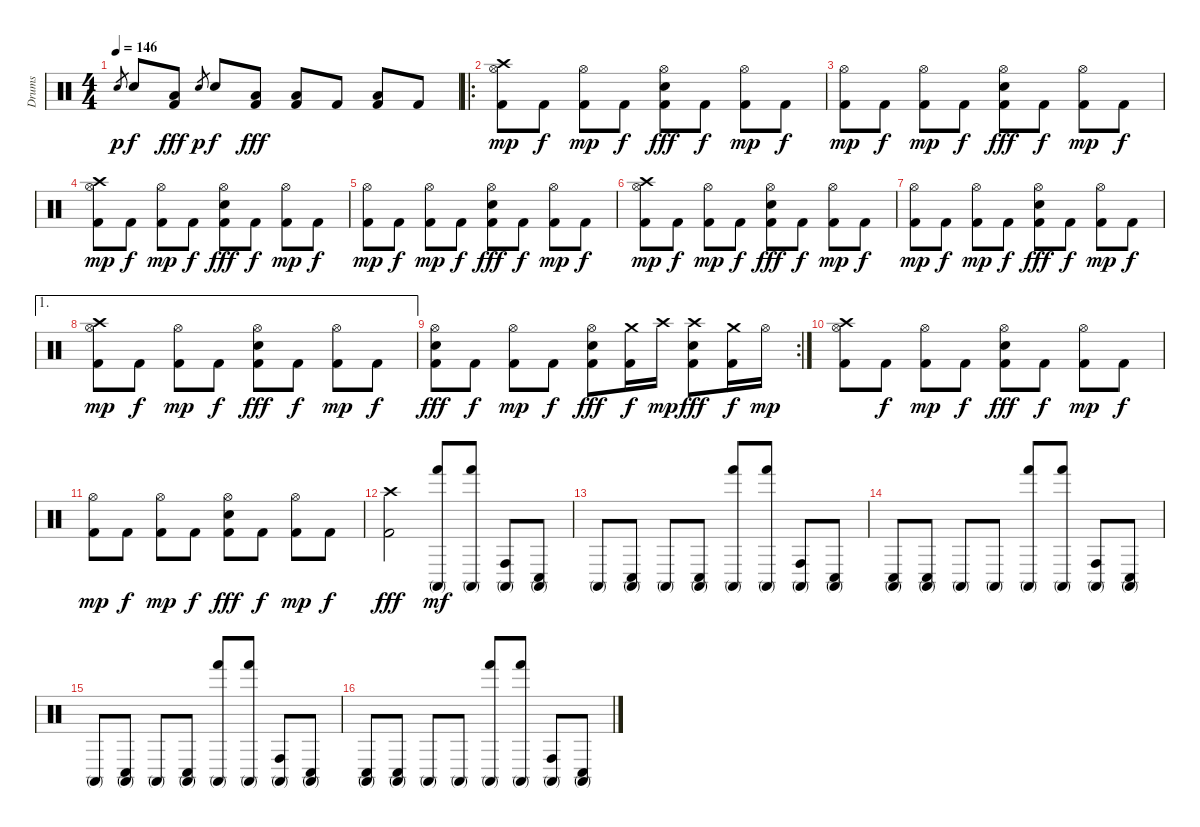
\track ("Drums" "Drums") {instrument percussion}
\staff {score}
\articulation defaults
\ts (4 4)
\tempo 146
\clef neutral
\ks c "Snare (hit) 2".8{gr dy p} "Snare (hit) 2".8{dy f}
("Low Floor Tom (hit)" "Kick (hit) 2").8{dy fff} "Snare (hit) 2".8{gr dy p} "Snare (hit) 2".8{dy f} ("Low Floor Tom (hit)" "Kick (hit) 2").8{dy fff} ("Low Floor Tom (hit)" "Kick (hit) 2").8 "Kick (hit) 2".8 ("Low Floor Tom (hit)" "Kick (hit) 2").8 "Kick (hit) 2".8 |
\ro
("Crash high (hit)" "Hi-Hat (open)" "Kick (hit) 2").8{dy mp} "Kick (hit) 2".8{dy f} ("Hi-Hat (open)" "Kick (hit) 2").8{dy mp} "Kick (hit) 2".8{dy f} ("Hi-Hat (open)" "Snare (hit) 2" "Kick (hit) 2").8{dy fff} "Kick (hit) 2".8{dy f} ("Hi-Hat (open)" "Kick (hit) 2").8{dy mp} "Kick (hit) 2".8{dy f} |
("Hi-Hat (open)" "Kick (hit) 2").8{dy mp} "Kick (hit) 2".8{dy f} ("Hi-Hat (open)" "Kick (hit) 2").8{dy mp} "Kick (hit) 2".8{dy f} ("Hi-Hat (open)" "Snare (hit) 2" "Kick (hit) 2").8{dy fff} "Kick (hit) 2".8{dy f} ("Hi-Hat (open)" "Kick (hit) 2").8{dy mp} "Kick (hit) 2".8{dy f} |
("Crash high (hit)" "Hi-Hat (open)" "Kick (hit) 2").8{dy mp} "Kick (hit) 2".8{dy f} ("Hi-Hat (open)" "Kick (hit) 2").8{dy mp} "Kick (hit) 2".8{dy f} ("Hi-Hat (open)" "Snare (hit) 2" "Kick (hit) 2").8{dy fff} "Kick (hit) 2".8{dy f} ("Hi-Hat (open)" "Kick (hit) 2").8{dy mp} "Kick (hit) 2".8{dy f} |
("Hi-Hat (open)" "Kick (hit) 2").8{dy mp} "Kick (hit) 2".8{dy f} ("Hi-Hat (open)" "Kick (hit) 2").8{dy mp} "Kick (hit) 2".8{dy f} ("Hi-Hat (open)" "Snare (hit) 2" "Kick (hit) 2").8{dy fff} "Kick (hit) 2".8{dy f} ("Hi-Hat (open)" "Kick (hit) 2").8{dy mp} "Kick (hit) 2".8{dy f} |
("Crash high (hit)" "Hi-Hat (open)" "Kick (hit) 2").8{dy mp} "Kick (hit) 2".8{dy f} ("Hi-Hat (open)" "Kick (hit) 2").8{dy mp} "Kick (hit) 2".8{dy f} ("Hi-Hat (open)" "Snare (hit) 2" "Kick (hit) 2").8{dy fff} "Kick (hit) 2".8{dy f} ("Hi-Hat (open)" "Kick (hit) 2").8{dy mp} "Kick (hit) 2".8{dy f} |
("Hi-Hat (open)" "Kick (hit) 2").8{dy mp} "Kick (hit) 2".8{dy f} ("Hi-Hat (open)" "Kick (hit) 2").8{dy mp} "Kick (hit) 2".8{dy f} ("Hi-Hat (open)" "Snare (hit) 2" "Kick (hit) 2").8{dy fff} "Kick (hit) 2".8{dy f} ("Hi-Hat (open)" "Kick (hit) 2").8{dy mp} "Kick (hit) 2".8{dy f} |
\ae 1
("Crash high (hit)" "Hi-Hat (open)" "Kick (hit) 2").8{dy mp} "Kick (hit) 2".8{dy f} ("Hi-Hat (open)" "Kick (hit) 2").8{dy mp} "Kick (hit) 2".8{dy f} ("Hi-Hat (open)" "Snare (hit) 2" "Kick (hit) 2").8{dy fff} "Kick (hit) 2".8{dy f} ("Hi-Hat (open)" "Kick (hit) 2").8{dy mp} "Kick (hit) 2".8{dy f} |
\rc 2
("Hi-Hat (open)" "Snare (hit) 2" "Kick (hit) 2").8{dy fff} "Kick (hit) 2".8{dy f} ("Hi-Hat (open)" "Kick (hit) 2").8{dy mp} "Kick (hit) 2".8{dy f} ("Hi-Hat (open)" "Snare (hit) 2" "Kick (hit) 2").8{dy fff} ("Crash medium (hit)" "Kick (hit) 2").16{dy f} "Crash high (hit)".16{dy mp} ("Crash high (hit)" "Snare (hit) 2" "Kick (hit) 2").8{dy fff} ("Crash medium (hit)" "Kick (hit) 2").16{dy f} "Hi-Hat (open)".16{dy mp} |
("Crash high (hit)" "Hi-Hat (open)" "Kick (hit) 2").8 "Kick (hit) 2".8{dy f} ("Hi-Hat (open)" "Kick (hit) 2").8{dy mp} "Kick (hit) 2".8{dy f} ("Hi-Hat (open)" "Snare (hit) 2" "Kick (hit) 2").8{dy fff} "Kick (hit) 2".8{dy f} ("Hi-Hat (open)" "Kick (hit) 2").8{dy mp} "Kick (hit) 2".8{dy f} |
("Hi-Hat (open)" "Kick (hit) 2").8{dy mp} "Kick (hit) 2".8{dy f} ("Hi-Hat (open)" "Kick (hit) 2").8{dy mp} "Kick (hit) 2".8{dy f} ("Hi-Hat (open)" "Snare (hit) 2" "Kick (hit) 2").8{dy fff} "Kick (hit) 2".8{dy f} ("Hi-Hat (open)" "Kick (hit) 2").8{dy mp} "Kick (hit) 2".8{dy f} |
("Crash high (hit)" "Kick (hit) 2").2{dy fff} ("Hand (hit)" "Conga high (mute)").8{dy mf} ("Hand (hit)" "Conga high (mute)").8 ("Conga high (hit)" "Conga high (mute)").8 ("Conga low (hit)" "Conga high (mute)").8 |
"Conga high (mute)".8{volume 4} ("Conga low (hit)" "Conga high (mute)").8 "Conga high (mute)".8 ("Conga low (hit)" "Conga high (mute)").8 ("Hand (hit)" "Conga high (mute)").8 ("Hand (hit)" "Conga high (mute)").8 ("Conga high (hit)" "Conga high (mute)").8 ("Conga low (hit)" "Conga high (mute)").8 |
("Conga low (hit)" "Conga high (mute)").8 ("Conga low (hit)" "Conga high (mute)").8 "Conga high (mute)".8 "Conga high (mute)".8 ("Hand (hit)" "Conga high (mute)").8 ("Hand (hit)" "Conga high (mute)").8 ("Conga high (hit)" "Conga high (mute)").8 ("Conga low (hit)" "Conga high (mute)").8 |
"Conga high (mute)".8 ("Conga low (hit)" "Conga high (mute)").8 "Conga high (mute)".8 ("Conga low (hit)" "Conga high (mute)").8 ("Hand (hit)" "Conga high (mute)").8 ("Hand (hit)" "Conga high (mute)").8 ("Conga high (hit)" "Conga high (mute)").8 ("Conga low (hit)" "Conga high (mute)").8 |
("Conga low (hit)" "Conga high (mute)").8 ("Conga low (hit)" "Conga high (mute)").8 "Conga high (mute)".8 "Conga high (mute)".8 ("Hand (hit)" "Conga high (mute)").8 ("Hand (hit)" "Conga high (mute)").8 ("Conga high (hit)" "Conga high (mute)").8 ("Conga low (hit)" "Conga high (mute)").8
